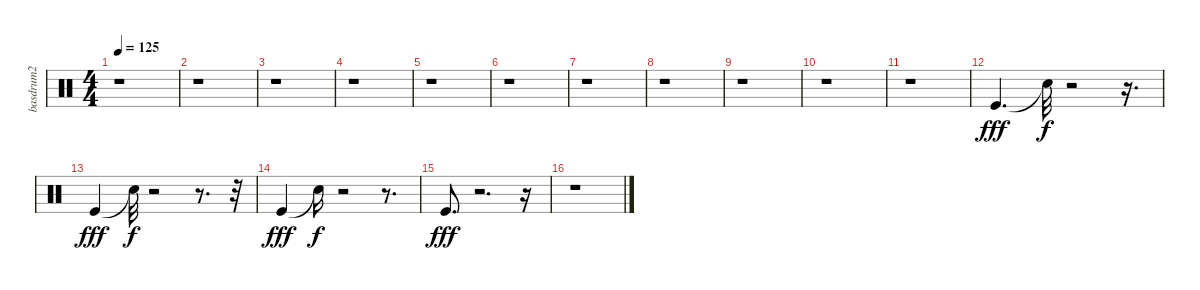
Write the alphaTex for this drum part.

\track ("basdrum2" "basdrum2") {instrument percussion}
\staff {score}
\articulation defaults
\ts (4 4)
\tempo 125
\clef neutral
\ks c
r.1{dy fff} |
r.1 |
r.1 |
r.1 |
r.1 |
r.1 |
r.1 |
r.1 |
r.1 |
r.1 |
r.1 |
"Kick (hit)".4{d} "Snare (hit)"{t}.32{dy f} r.2 r.16{d} |
"Kick (hit)".4{dy fff} "Snare (hit)"{t}.32{dy f} r.2 r.8{d} r.32 |
"Kick (hit)".4{dy fff} "Snare (hit)"{t}.16{dy f} r.2 r.8{d} |
"Kick (hit)".8{d dy fff} r.2{d} r.16 |
r.1
